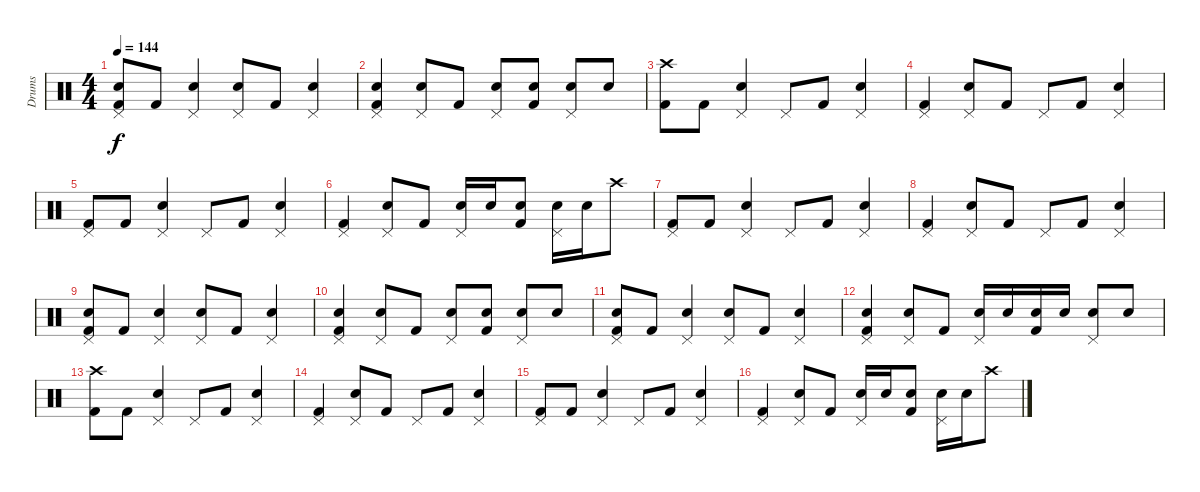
\track ("Drums" "Drums") {instrument percussion}
\staff {score}
\articulation defaults
\ts (4 4)
\tempo 144
\clef neutral
\ks c
("Electric Snare (hit)" "Pedal Hi-Hat (hit)" "Kick (hit) 2").8{dy f} "Kick (hit) 2".8 ("Pedal Hi-Hat (hit)" "Electric Snare (hit)").4 ("Electric Snare (hit)" "Pedal Hi-Hat (hit)").8 "Kick (hit) 2".8 ("Pedal Hi-Hat (hit)" "Electric Snare (hit)").4 |
("Electric Snare (hit)" "Kick (hit) 2" "Pedal Hi-Hat (hit)").4 ("Electric Snare (hit)" "Pedal Hi-Hat (hit)").8 "Kick (hit) 2".8 ("Electric Snare (hit)" "Pedal Hi-Hat (hit)").8 ("Electric Snare (hit)" "Kick (hit) 2").8 ("Electric Snare (hit)" "Pedal Hi-Hat (hit)").8 "Electric Snare (hit)".8 |
("Crash high (hit)" "Kick (hit) 2").8 "Kick (hit) 2".8 ("Pedal Hi-Hat (hit)" "Electric Snare (hit)").4 "Pedal Hi-Hat (hit)".8 "Kick (hit) 2".8 ("Pedal Hi-Hat (hit)" "Electric Snare (hit)").4 |
("Kick (hit) 2" "Pedal Hi-Hat (hit)").4 ("Electric Snare (hit)" "Pedal Hi-Hat (hit)").8 "Kick (hit) 2".8 "Pedal Hi-Hat (hit)".8 "Kick (hit) 2".8 ("Electric Snare (hit)" "Pedal Hi-Hat (hit)").4 |
("Pedal Hi-Hat (hit)" "Kick (hit) 2").8 "Kick (hit) 2".8 ("Pedal Hi-Hat (hit)" "Electric Snare (hit)").4 "Pedal Hi-Hat (hit)".8 "Kick (hit) 2".8 ("Pedal Hi-Hat (hit)" "Electric Snare (hit)").4 |
("Kick (hit) 2" "Pedal Hi-Hat (hit)").4 ("Electric Snare (hit)" "Pedal Hi-Hat (hit)").8 "Kick (hit) 2".8 ("Electric Snare (hit)" "Pedal Hi-Hat (hit)").16 "Electric Snare (hit)".16 ("Electric Snare (hit)" "Kick (hit) 2").8 ("Electric Snare (hit)" "Pedal Hi-Hat (hit)").16 "Electric Snare (hit)".16 "Crash high (hit)".8 |
("Pedal Hi-Hat (hit)" "Kick (hit) 2").8 "Kick (hit) 2".8 ("Pedal Hi-Hat (hit)" "Electric Snare (hit)").4 "Pedal Hi-Hat (hit)".8 "Kick (hit) 2".8 ("Pedal Hi-Hat (hit)" "Electric Snare (hit)").4 |
("Kick (hit) 2" "Pedal Hi-Hat (hit)").4 ("Electric Snare (hit)" "Pedal Hi-Hat (hit)").8 "Kick (hit) 2".8 "Pedal Hi-Hat (hit)".8 "Kick (hit) 2".8 ("Electric Snare (hit)" "Pedal Hi-Hat (hit)").4 |
("Electric Snare (hit)" "Pedal Hi-Hat (hit)" "Kick (hit) 2").8 "Kick (hit) 2".8 ("Pedal Hi-Hat (hit)" "Electric Snare (hit)").4 ("Electric Snare (hit)" "Pedal Hi-Hat (hit)").8 "Kick (hit) 2".8 ("Pedal Hi-Hat (hit)" "Electric Snare (hit)").4 |
("Electric Snare (hit)" "Kick (hit) 2" "Pedal Hi-Hat (hit)").4 ("Electric Snare (hit)" "Pedal Hi-Hat (hit)").8 "Kick (hit) 2".8 ("Electric Snare (hit)" "Pedal Hi-Hat (hit)").8 ("Electric Snare (hit)" "Kick (hit) 2").8 ("Electric Snare (hit)" "Pedal Hi-Hat (hit)").8 "Electric Snare (hit)".8 |
("Electric Snare (hit)" "Pedal Hi-Hat (hit)" "Kick (hit) 2").8 "Kick (hit) 2".8 ("Pedal Hi-Hat (hit)" "Electric Snare (hit)").4 ("Electric Snare (hit)" "Pedal Hi-Hat (hit)").8 "Kick (hit) 2".8 ("Pedal Hi-Hat (hit)" "Electric Snare (hit)").4 |
("Electric Snare (hit)" "Kick (hit) 2" "Pedal Hi-Hat (hit)").4 ("Electric Snare (hit)" "Pedal Hi-Hat (hit)").8 "Kick (hit) 2".8 ("Electric Snare (hit)" "Pedal Hi-Hat (hit)").16 "Electric Snare (hit)".16 ("Electric Snare (hit)" "Kick (hit) 2").16 "Electric Snare (hit)".16 ("Electric Snare (hit)" "Pedal Hi-Hat (hit)").8 "Electric Snare (hit)".8 |
("Crash high (hit)" "Kick (hit) 2").8 "Kick (hit) 2".8 ("Pedal Hi-Hat (hit)" "Electric Snare (hit)").4 "Pedal Hi-Hat (hit)".8 "Kick (hit) 2".8 ("Pedal Hi-Hat (hit)" "Electric Snare (hit)").4 |
("Kick (hit) 2" "Pedal Hi-Hat (hit)").4 ("Electric Snare (hit)" "Pedal Hi-Hat (hit)").8 "Kick (hit) 2".8 "Pedal Hi-Hat (hit)".8 "Kick (hit) 2".8 ("Electric Snare (hit)" "Pedal Hi-Hat (hit)").4 |
("Pedal Hi-Hat (hit)" "Kick (hit) 2").8 "Kick (hit) 2".8 ("Pedal Hi-Hat (hit)" "Electric Snare (hit)").4 "Pedal Hi-Hat (hit)".8 "Kick (hit) 2".8 ("Pedal Hi-Hat (hit)" "Electric Snare (hit)").4 |
("Kick (hit) 2" "Pedal Hi-Hat (hit)").4 ("Electric Snare (hit)" "Pedal Hi-Hat (hit)").8 "Kick (hit) 2".8 ("Electric Snare (hit)" "Pedal Hi-Hat (hit)").16 "Electric Snare (hit)".16 ("Electric Snare (hit)" "Kick (hit) 2").8 ("Electric Snare (hit)" "Pedal Hi-Hat (hit)").16 "Electric Snare (hit)".16 "Crash high (hit)".8
